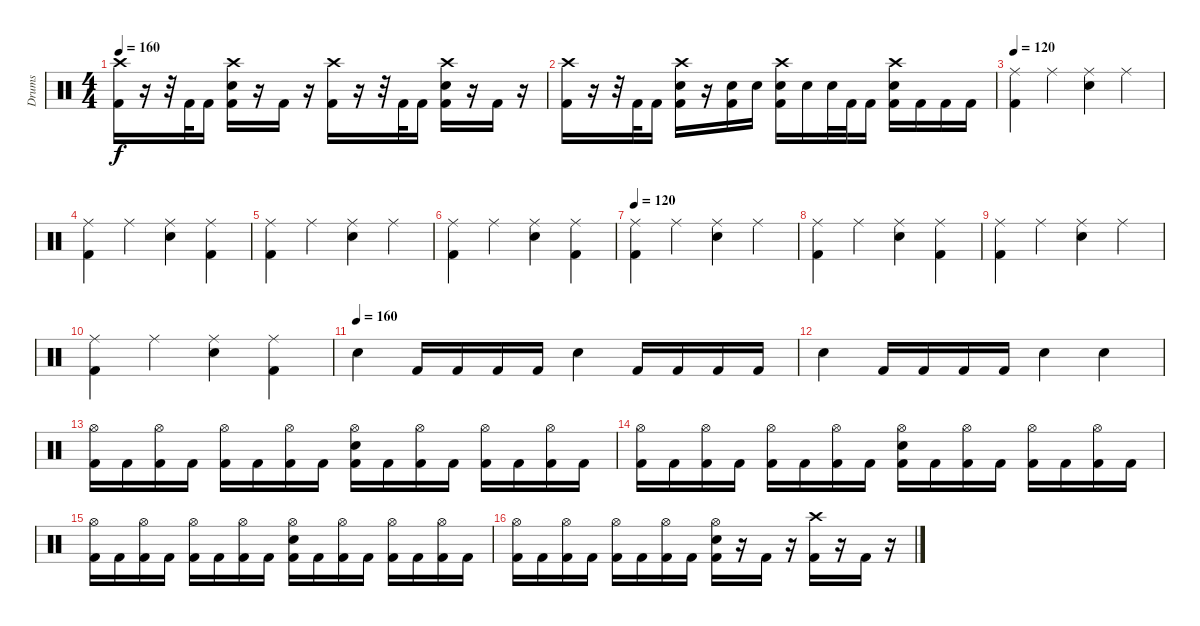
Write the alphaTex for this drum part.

\track ("Drums" "Drums") {instrument percussion}
\staff {score}
\articulation defaults
\ts (4 4)
\tempo 160
\clef neutral
\ks c
("Crash high (hit)" "Kick (hit) 2").16{dy f} r.16 r.32 "Kick (hit) 2".32 "Kick (hit) 2".16 ("Crash high (hit)" "Electric Snare (hit)" "Kick (hit) 2").16 r.16 "Kick (hit) 2".16 r.16 ("Crash high (hit)" "Kick (hit) 2").16 r.16 r.32 "Kick (hit) 2".32 "Kick (hit) 2".16 ("Crash high (hit)" "Electric Snare (hit)" "Kick (hit) 2").16 r.16 "Kick (hit) 2".16 r.16 |
("Crash high (hit)" "Kick (hit) 2").16 r.16 r.32 "Kick (hit) 2".32 "Kick (hit) 2".16 ("Crash high (hit)" "Electric Snare (hit)" "Kick (hit) 2").16 r.16 ("Electric Snare (hit)" "Kick (hit) 2").16 "Electric Snare (hit)".16 ("Crash high (hit)" "Electric Snare (hit)" "Kick (hit) 2").16 "Electric Snare (hit)".16 "Electric Snare (hit)".32 "Kick (hit) 2".32 "Kick (hit) 2".16 ("Crash high (hit)" "Electric Snare (hit)" "Kick (hit) 2").16 "Kick (hit) 2".16 "Kick (hit) 2".16 "Kick (hit) 2".16 |
\tempo 120
("Ride (middle)" "Kick (hit) 2").4 "Ride (middle)".4 ("Ride (middle)" "Electric Snare (hit)").4 "Ride (middle)".4 |
("Ride (middle)" "Kick (hit) 2").4 "Ride (middle)".4 ("Ride (middle)" "Electric Snare (hit)").4 ("Ride (middle)" "Kick (hit) 2").4 |
("Ride (middle)" "Kick (hit) 2").4 "Ride (middle)".4 ("Ride (middle)" "Electric Snare (hit)").4 "Ride (middle)".4 |
("Ride (middle)" "Kick (hit) 2").4 "Ride (middle)".4 ("Ride (middle)" "Electric Snare (hit)").4 ("Ride (middle)" "Kick (hit) 2").4 |
\tempo 120
("Ride (middle)" "Kick (hit) 2").4 "Ride (middle)".4 ("Ride (middle)" "Electric Snare (hit)").4 "Ride (middle)".4 |
("Ride (middle)" "Kick (hit) 2").4 "Ride (middle)".4 ("Ride (middle)" "Electric Snare (hit)").4 ("Ride (middle)" "Kick (hit) 2").4 |
("Ride (middle)" "Kick (hit) 2").4 "Ride (middle)".4 ("Ride (middle)" "Electric Snare (hit)").4 "Ride (middle)".4 |
("Ride (middle)" "Kick (hit) 2").4 "Ride (middle)".4 ("Ride (middle)" "Electric Snare (hit)").4 ("Ride (middle)" "Kick (hit) 2").4 |
\tempo (160)
"Electric Snare (hit)".4 "Kick (hit) 2".16 "Kick (hit) 2".16 "Kick (hit) 2".16 "Kick (hit) 2".16 "Electric Snare (hit)".4 "Kick (hit) 2".16 "Kick (hit) 2".16 "Kick (hit) 2".16 "Kick (hit) 2".16 |
"Electric Snare (hit)".4 "Kick (hit) 2".16 "Kick (hit) 2".16 "Kick (hit) 2".16 "Kick (hit) 2".16 "Electric Snare (hit)".4 "Electric Snare (hit)".4 |
("Hi-Hat (open)" "Kick (hit) 2").16 "Kick (hit) 2".16 ("Hi-Hat (open)" "Kick (hit) 2").16 "Kick (hit) 2".16 ("Hi-Hat (open)" "Kick (hit) 2").16 "Kick (hit) 2".16 ("Hi-Hat (open)" "Kick (hit) 2").16 "Kick (hit) 2".16 ("Hi-Hat (open)" "Electric Snare (hit)" "Kick (hit) 2").16 "Kick (hit) 2".16 ("Hi-Hat (open)" "Kick (hit) 2").16 "Kick (hit) 2".16 ("Hi-Hat (open)" "Kick (hit) 2").16 "Kick (hit) 2".16 ("Hi-Hat (open)" "Kick (hit) 2").16 "Kick (hit) 2".16 |
("Hi-Hat (open)" "Kick (hit) 2").16 "Kick (hit) 2".16 ("Hi-Hat (open)" "Kick (hit) 2").16 "Kick (hit) 2".16 ("Hi-Hat (open)" "Kick (hit) 2").16 "Kick (hit) 2".16 ("Hi-Hat (open)" "Kick (hit) 2").16 "Kick (hit) 2".16 ("Hi-Hat (open)" "Electric Snare (hit)" "Kick (hit) 2").16 "Kick (hit) 2".16 ("Hi-Hat (open)" "Kick (hit) 2").16 "Kick (hit) 2".16 ("Hi-Hat (open)" "Kick (hit) 2").16 "Kick (hit) 2".16 ("Hi-Hat (open)" "Kick (hit) 2").16 "Kick (hit) 2".16 |
("Hi-Hat (open)" "Kick (hit) 2").16 "Kick (hit) 2".16 ("Hi-Hat (open)" "Kick (hit) 2").16 "Kick (hit) 2".16 ("Hi-Hat (open)" "Kick (hit) 2").16 "Kick (hit) 2".16 ("Hi-Hat (open)" "Kick (hit) 2").16 "Kick (hit) 2".16 ("Hi-Hat (open)" "Electric Snare (hit)" "Kick (hit) 2").16 "Kick (hit) 2".16 ("Hi-Hat (open)" "Kick (hit) 2").16 "Kick (hit) 2".16 ("Hi-Hat (open)" "Kick (hit) 2").16 "Kick (hit) 2".16 ("Hi-Hat (open)" "Kick (hit) 2").16 "Kick (hit) 2".16 |
("Hi-Hat (open)" "Kick (hit) 2").16 "Kick (hit) 2".16 ("Hi-Hat (open)" "Kick (hit) 2").16 "Kick (hit) 2".16 ("Hi-Hat (open)" "Kick (hit) 2").16 "Kick (hit) 2".16 ("Hi-Hat (open)" "Kick (hit) 2").16 "Kick (hit) 2".16 ("Hi-Hat (open)" "Electric Snare (hit)" "Kick (hit) 2").16 r.16 "Kick (hit) 2".16 r.16 ("Crash high (hit)" "Kick (hit) 2").16 r.16 "Kick (hit) 2".16 r.16
